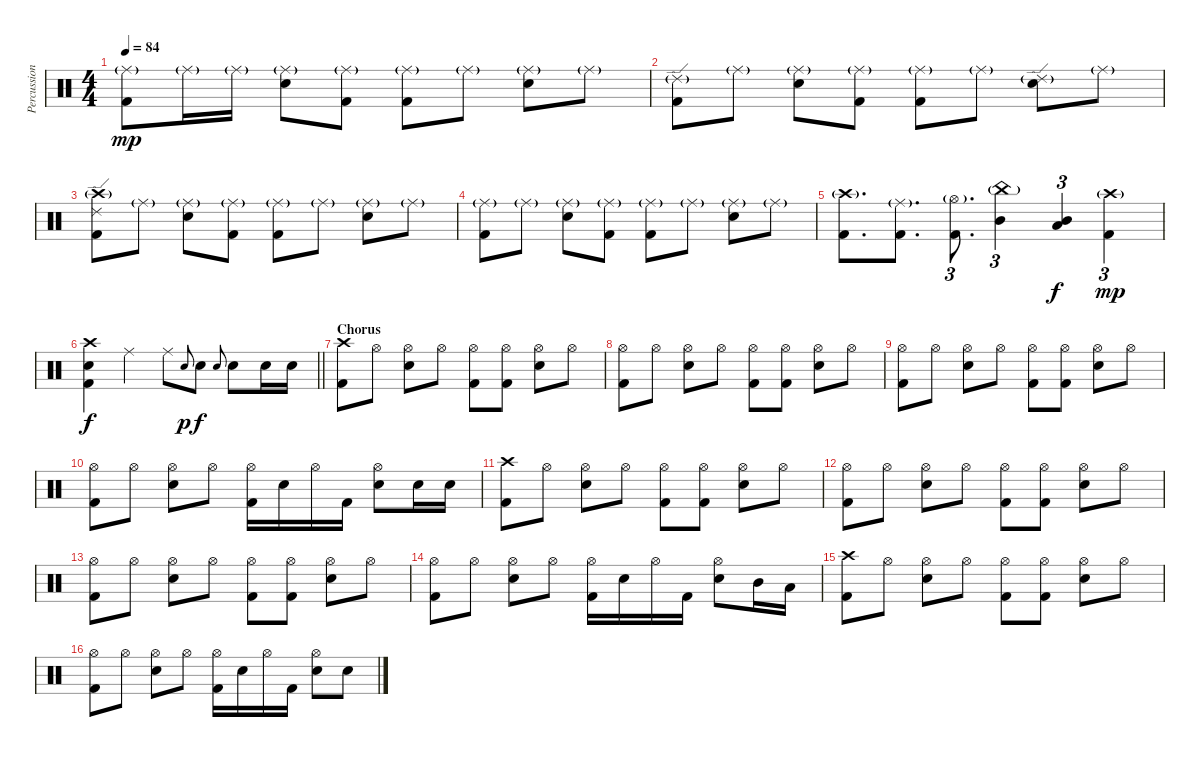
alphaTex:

\track ("Percussion" "Percussion") {instrument percussion}
\staff {score}
\articulation defaults
\ts (4 4)
\tempo 84
\clef neutral
\ks c
("Ride (middle)"{g} "Kick (hit) 2").8{dy mp} "Ride (middle)"{g}.16 "Ride (middle)"{g}.16 ("Ride (middle)"{g} "Electric Snare (hit)").8 ("Ride (middle)"{g} "Kick (hit) 2").8 ("Ride (middle)"{g} "Kick (hit) 2").8 "Ride (middle)"{g}.8 ("Ride (middle)"{g} "Electric Snare (hit)").8 "Ride (middle)"{g}.8 |
("Ride (edge) 2"{g} "Kick (hit) 2").8 "Ride (middle)"{g}.8 ("Ride (middle)"{g} "Electric Snare (hit)").8 ("Ride (middle)"{g} "Kick (hit) 2").8 ("Ride (middle)"{g} "Kick (hit) 2").8 "Ride (middle)"{g}.8 ("Ride (edge) 2"{g} "Electric Snare (hit)").8 "Ride (middle)"{g}.8 |
("Ride (edge) 2" "Crash high (hit)"{g} "Kick (hit) 2").8 "Ride (middle)"{g}.8 ("Ride (middle)"{g} "Electric Snare (hit)").8 ("Ride (middle)"{g} "Kick (hit) 2").8 ("Ride (middle)"{g} "Kick (hit) 2").8 "Ride (middle)"{g}.8 ("Ride (middle)"{g} "Electric Snare (hit)").8 "Ride (middle)"{g}.8 |
("Ride (middle)"{g} "Kick (hit) 2").8 "Ride (middle)"{g}.8 ("Ride (middle)"{g} "Electric Snare (hit)").8 ("Ride (middle)"{g} "Kick (hit) 2").8 ("Ride (middle)"{g} "Kick (hit) 2").8 "Ride (middle)"{g}.8 ("Ride (middle)"{g} "Electric Snare (hit)").8 "Ride (middle)"{g}.8 |
("Crash high (hit)"{g} "Kick (hit) 2").8{d} ("Ride (middle)"{g} "Kick (hit) 2").8{d} ("Hi-Hat (open)"{g} "Kick (hit) 2").8{d tu (3 2)} ("China (hit)"{g} "Mid Tom (hit)").4{tu (3 2)} ("Low Tom (hit)" "Mid Tom (hit)").4{tu (3 2) dy f} ("Crash high (hit)"{g} "Kick (hit) 2").4{tu (3 2) dy mp} |
\barLineRight lightlight
("Crash high (hit)" "Electric Snare (hit)" "Kick (hit) 2").4{dy f} "Ride (middle)".4 "Ride (middle)".8 "Snare (hit) 2"{h}.8{gr onbeat dy p} "Snare (hit) 2".8{dy f} "Snare (hit) 2"{h}.8{gr onbeat} "Snare (hit) 2".8 "Snare (hit) 2".16 "Snare (hit) 2".16 |
\section ("" "Chorus")
("Crash high (hit)" "Kick (hit) 2").8 "Hi-Hat (open)".8 ("Hi-Hat (open)" "Electric Snare (hit)").8 "Hi-Hat (open)".8 ("Hi-Hat (open)" "Kick (hit) 2").8 ("Hi-Hat (open)" "Kick (hit) 2").8 ("Hi-Hat (open)" "Electric Snare (hit)").8 "Hi-Hat (open)".8 |
("Hi-Hat (open)" "Kick (hit) 2").8 "Hi-Hat (open)".8 ("Hi-Hat (open)" "Electric Snare (hit)").8 "Hi-Hat (open)".8 ("Hi-Hat (open)" "Kick (hit) 2").8 ("Hi-Hat (open)" "Kick (hit) 2").8 ("Hi-Hat (open)" "Electric Snare (hit)").8 "Hi-Hat (open)".8 |
("Hi-Hat (open)" "Kick (hit) 2").8 "Hi-Hat (open)".8 ("Hi-Hat (open)" "Electric Snare (hit)").8 "Hi-Hat (open)".8 ("Hi-Hat (open)" "Kick (hit) 2").8 ("Hi-Hat (open)" "Kick (hit) 2").8 ("Hi-Hat (open)" "Electric Snare (hit)").8 "Hi-Hat (open)".8 |
("Hi-Hat (open)" "Kick (hit) 2").8 "Hi-Hat (open)".8 ("Hi-Hat (open)" "Electric Snare (hit)").8 "Hi-Hat (open)".8 ("Hi-Hat (open)" "Kick (hit) 2").16 "Electric Snare (hit)".16 "Hi-Hat (open)".16 "Kick (hit) 2".16 ("Hi-Hat (open)" "Electric Snare (hit)").8 "Electric Snare (hit)".16 "Electric Snare (hit)".16 |
("Crash high (hit)" "Kick (hit) 2").8 "Hi-Hat (open)".8 ("Hi-Hat (open)" "Electric Snare (hit)").8 "Hi-Hat (open)".8 ("Hi-Hat (open)" "Kick (hit) 2").8 ("Hi-Hat (open)" "Kick (hit) 2").8 ("Hi-Hat (open)" "Electric Snare (hit)").8 "Hi-Hat (open)".8 |
("Hi-Hat (open)" "Kick (hit) 2").8 "Hi-Hat (open)".8 ("Hi-Hat (open)" "Electric Snare (hit)").8 "Hi-Hat (open)".8 ("Hi-Hat (open)" "Kick (hit) 2").8 ("Hi-Hat (open)" "Kick (hit) 2").8 ("Hi-Hat (open)" "Electric Snare (hit)").8 "Hi-Hat (open)".8 |
("Hi-Hat (open)" "Kick (hit) 2").8 "Hi-Hat (open)".8 ("Hi-Hat (open)" "Electric Snare (hit)").8 "Hi-Hat (open)".8 ("Hi-Hat (open)" "Kick (hit) 2").8 ("Hi-Hat (open)" "Kick (hit) 2").8 ("Hi-Hat (open)" "Electric Snare (hit)").8 "Hi-Hat (open)".8 |
("Hi-Hat (open)" "Kick (hit) 2").8 "Hi-Hat (open)".8 ("Hi-Hat (open)" "Electric Snare (hit)").8 "Hi-Hat (open)".8 ("Hi-Hat (open)" "Kick (hit) 2").16 "Electric Snare (hit)".16 "Hi-Hat (open)".16 "Kick (hit) 2".16 ("Hi-Hat (open)" "Electric Snare (hit)").8 "Mid Tom (hit)".16 "Low Tom (hit)".16 |
("Crash high (hit)" "Kick (hit) 2").8 "Hi-Hat (open)".8 ("Hi-Hat (open)" "Electric Snare (hit)").8 "Hi-Hat (open)".8 ("Hi-Hat (open)" "Kick (hit) 2").8 ("Hi-Hat (open)" "Kick (hit) 2").8 ("Hi-Hat (open)" "Electric Snare (hit)").8 "Hi-Hat (open)".8 |
("Hi-Hat (open)" "Kick (hit) 2").8 "Hi-Hat (open)".8 ("Hi-Hat (open)" "Electric Snare (hit)").8 "Hi-Hat (open)".8 ("Hi-Hat (open)" "Kick (hit) 2").16 "Electric Snare (hit)".16 "Hi-Hat (open)".16 "Kick (hit) 2".16 ("Hi-Hat (open)" "Electric Snare (hit)").8 "Electric Snare (hit)".8
